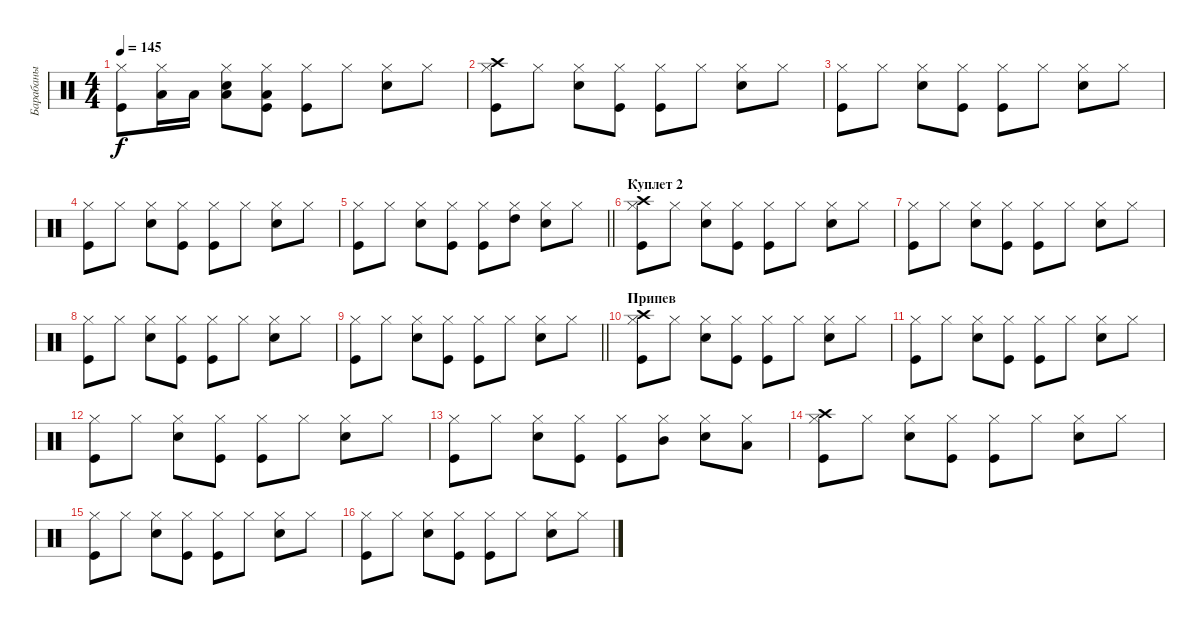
\track ("Барабаны" "Барабаны") {instrument percussion}
\staff {score}
\articulation defaults
\ts (4 4)
\tempo 145
\clef neutral
\ks c
("Kick (hit)" "Hi-Hat (closed)").8{dy f} ("Hi-Hat (closed)" "Low Tom (hit)").16 "Low Tom (hit)".16 ("Snare (hit) 2" "Hi-Hat (closed)" "Low Tom (hit)").8 ("Kick (hit)" "Hi-Hat (closed)" "Low Tom (hit)").8 ("Kick (hit)" "Hi-Hat (closed)").8 "Hi-Hat (closed)".8 ("Snare (hit) 2" "Hi-Hat (closed)").8 "Hi-Hat (closed)".8 |
("Kick (hit)" "Hi-Hat (closed)" "Crash high (hit)").8 "Hi-Hat (closed)".8 ("Snare (hit) 2" "Hi-Hat (closed)").8 ("Kick (hit)" "Hi-Hat (closed)").8 ("Kick (hit)" "Hi-Hat (closed)").8 "Hi-Hat (closed)".8 ("Snare (hit) 2" "Hi-Hat (closed)").8 "Hi-Hat (closed)".8 |
("Kick (hit)" "Hi-Hat (closed)").8 "Hi-Hat (closed)".8 ("Snare (hit) 2" "Hi-Hat (closed)").8 ("Kick (hit)" "Hi-Hat (closed)").8 ("Kick (hit)" "Hi-Hat (closed)").8 "Hi-Hat (closed)".8 ("Snare (hit) 2" "Hi-Hat (closed)").8 "Hi-Hat (closed)".8 |
("Kick (hit)" "Hi-Hat (closed)").8 "Hi-Hat (closed)".8 ("Snare (hit) 2" "Hi-Hat (closed)").8 ("Kick (hit)" "Hi-Hat (closed)").8 ("Kick (hit)" "Hi-Hat (closed)").8 "Hi-Hat (closed)".8 ("Snare (hit) 2" "Hi-Hat (closed)").8 "Hi-Hat (closed)".8 |
\barLineRight lightlight
("Kick (hit)" "Hi-Hat (closed)").8 "Hi-Hat (closed)".8 ("Snare (hit) 2" "Hi-Hat (closed)").8 ("Kick (hit)" "Hi-Hat (closed)").8 ("Kick (hit)" "Hi-Hat (closed)").8 ("Hi-Hat (closed)" "High Tom (hit)").8 ("Snare (hit) 2" "Hi-Hat (closed)").8 "Hi-Hat (closed)".8 |
\section ("" "Куплет 2")
("Kick (hit)" "Hi-Hat (closed)" "Crash high (hit)").8 "Hi-Hat (closed)".8 ("Snare (hit) 2" "Hi-Hat (closed)").8 ("Kick (hit)" "Hi-Hat (closed)").8 ("Kick (hit)" "Hi-Hat (closed)").8 "Hi-Hat (closed)".8 ("Snare (hit) 2" "Hi-Hat (closed)").8 "Hi-Hat (closed)".8 |
("Kick (hit)" "Hi-Hat (closed)").8 "Hi-Hat (closed)".8 ("Snare (hit) 2" "Hi-Hat (closed)").8 ("Kick (hit)" "Hi-Hat (closed)").8 ("Kick (hit)" "Hi-Hat (closed)").8 "Hi-Hat (closed)".8 ("Snare (hit) 2" "Hi-Hat (closed)").8 "Hi-Hat (closed)".8 |
("Kick (hit)" "Hi-Hat (closed)").8 "Hi-Hat (closed)".8 ("Snare (hit) 2" "Hi-Hat (closed)").8 ("Kick (hit)" "Hi-Hat (closed)").8 ("Kick (hit)" "Hi-Hat (closed)").8 "Hi-Hat (closed)".8 ("Snare (hit) 2" "Hi-Hat (closed)").8 "Hi-Hat (closed)".8 |
\barLineRight lightlight
("Kick (hit)" "Hi-Hat (closed)").8 "Hi-Hat (closed)".8 ("Snare (hit) 2" "Hi-Hat (closed)").8 ("Kick (hit)" "Hi-Hat (closed)").8 ("Kick (hit)" "Hi-Hat (closed)").8 "Hi-Hat (closed)".8 ("Snare (hit) 2" "Hi-Hat (closed)").8 "Hi-Hat (closed)".8 |
\section ("" "Припев")
("Kick (hit)" "Hi-Hat (closed)" "Crash high (hit)").8 "Hi-Hat (closed)".8 ("Snare (hit) 2" "Hi-Hat (closed)").8 ("Kick (hit)" "Hi-Hat (closed)").8 ("Kick (hit)" "Hi-Hat (closed)").8 "Hi-Hat (closed)".8 ("Snare (hit) 2" "Hi-Hat (closed)").8 "Hi-Hat (closed)".8 |
("Kick (hit)" "Hi-Hat (closed)").8 "Hi-Hat (closed)".8 ("Snare (hit) 2" "Hi-Hat (closed)").8 ("Kick (hit)" "Hi-Hat (closed)").8 ("Kick (hit)" "Hi-Hat (closed)").8 "Hi-Hat (closed)".8 ("Snare (hit) 2" "Hi-Hat (closed)").8 "Hi-Hat (closed)".8 |
("Kick (hit)" "Hi-Hat (closed)").8 "Hi-Hat (closed)".8 ("Snare (hit) 2" "Hi-Hat (closed)").8 ("Kick (hit)" "Hi-Hat (closed)").8 ("Kick (hit)" "Hi-Hat (closed)").8 "Hi-Hat (closed)".8 ("Snare (hit) 2" "Hi-Hat (closed)").8 "Hi-Hat (closed)".8 |
("Kick (hit)" "Hi-Hat (closed)").8 "Hi-Hat (closed)".8 ("Snare (hit) 2" "Hi-Hat (closed)").8 ("Kick (hit)" "Hi-Hat (closed)").8 ("Kick (hit)" "Hi-Hat (closed)").8 ("Hi-Hat (closed)" "Mid Tom (hit)").8 ("Snare (hit) 2" "Hi-Hat (closed)").8 ("Hi-Hat (closed)" "Low Tom (hit)").8 |
("Kick (hit)" "Hi-Hat (closed)" "Crash high (hit)").8 "Hi-Hat (closed)".8 ("Snare (hit) 2" "Hi-Hat (closed)").8 ("Kick (hit)" "Hi-Hat (closed)").8 ("Kick (hit)" "Hi-Hat (closed)").8 "Hi-Hat (closed)".8 ("Snare (hit) 2" "Hi-Hat (closed)").8 "Hi-Hat (closed)".8 |
("Kick (hit)" "Hi-Hat (closed)").8 "Hi-Hat (closed)".8 ("Snare (hit) 2" "Hi-Hat (closed)").8 ("Kick (hit)" "Hi-Hat (closed)").8 ("Kick (hit)" "Hi-Hat (closed)").8 "Hi-Hat (closed)".8 ("Snare (hit) 2" "Hi-Hat (closed)").8 "Hi-Hat (closed)".8 |
("Kick (hit)" "Hi-Hat (closed)").8 "Hi-Hat (closed)".8 ("Snare (hit) 2" "Hi-Hat (closed)").8 ("Kick (hit)" "Hi-Hat (closed)").8 ("Kick (hit)" "Hi-Hat (closed)").8 "Hi-Hat (closed)".8 ("Snare (hit) 2" "Hi-Hat (closed)").8 "Hi-Hat (closed)".8
